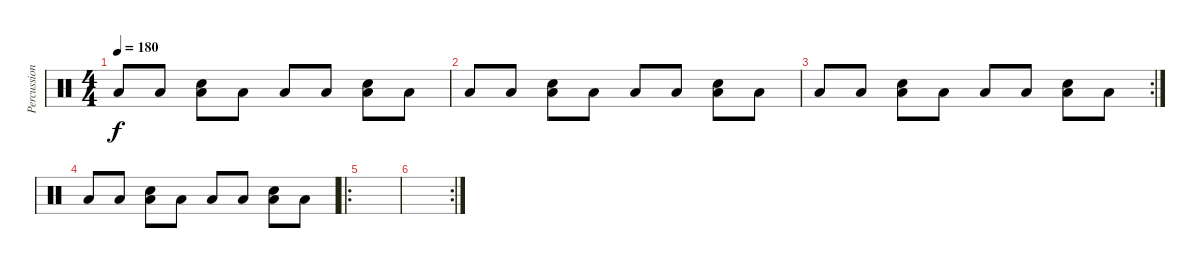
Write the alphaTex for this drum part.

\track ("Percussions" "Percussion") {instrument percussion}
\staff {score}
\articulation defaults
\ts (4 4)
\tempo 180
\clef neutral
\ks c "Low Floor Tom (hit)".8{dy f} "Low Floor Tom (hit)".8
("Snare (hit) 2" "Low Floor Tom (hit)").8 "Low Floor Tom (hit)".8 "Low Floor Tom (hit)".8 "Low Floor Tom (hit)".8 ("Snare (hit) 2" "Low Floor Tom (hit)").8 "Low Floor Tom (hit)".8 |
"Low Floor Tom (hit)".8 "Low Floor Tom (hit)".8 ("Snare (hit) 2" "Low Floor Tom (hit)").8 "Low Floor Tom (hit)".8 "Low Floor Tom (hit)".8 "Low Floor Tom (hit)".8 ("Snare (hit) 2" "Low Floor Tom (hit)").8 "Low Floor Tom (hit)".8 |
\rc 2 "Low Floor Tom (hit)".8 "Low Floor Tom (hit)".8
("Snare (hit) 2" "Low Floor Tom (hit)").8 "Low Floor Tom (hit)".8 "Low Floor Tom (hit)".8 "Low Floor Tom (hit)".8 ("Snare (hit) 2" "Low Floor Tom (hit)").8 "Low Floor Tom (hit)".8 |
"Low Floor Tom (hit)".8 "Low Floor Tom (hit)".8 ("Snare (hit) 2" "Low Floor Tom (hit)").8 "Low Floor Tom (hit)".8 "Low Floor Tom (hit)".8 "Low Floor Tom (hit)".8 ("Snare (hit) 2" "Low Floor Tom (hit)").8 "Low Floor Tom (hit)".8 |
\ro
|
\rc 2
